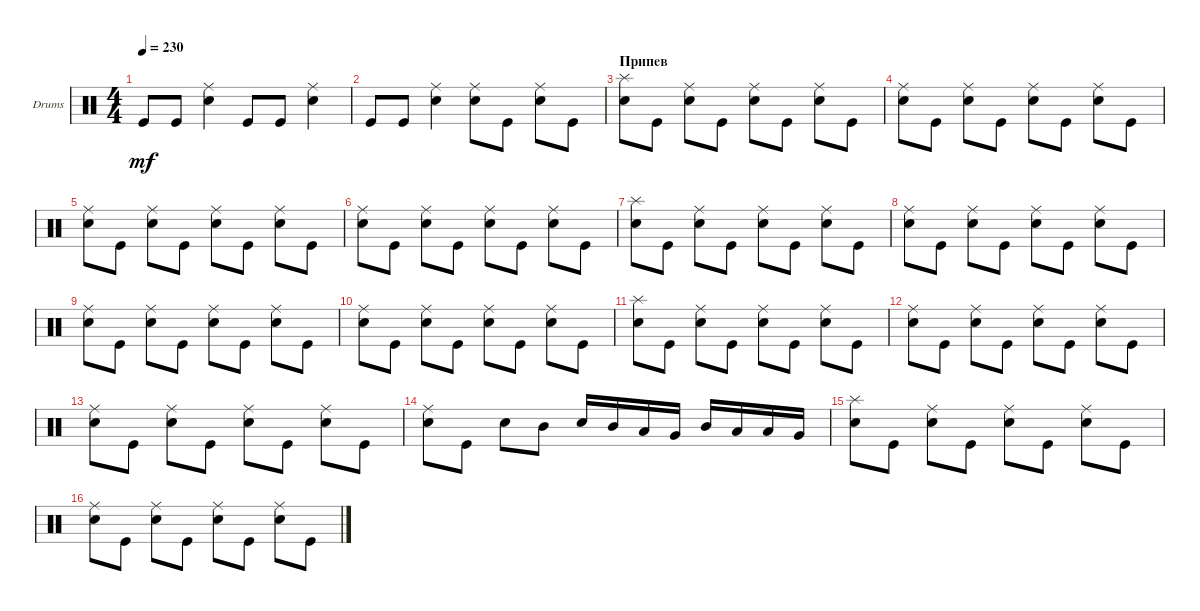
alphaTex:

\defaultSystemsLayout 4
\bracketExtendMode groupsimilarinstruments
\firstSystemTrackNameOrientation horizontal
\otherSystemsTrackNameOrientation horizontal
\track ("Drumkit" "Drums") {instrument percussion}
\staff {score}
\articulation defaults
\ts (4 4)
\tempo 230
\clef neutral
\ks c "Kick (hit)".8{dy mf} "Kick (hit)".8
("Snare (hit) 2" "Ride (middle)").4 "Kick (hit)".8 "Kick (hit)".8 ("Snare (hit) 2" "Ride (middle)").4 |
"Kick (hit)".8 "Kick (hit)".8 ("Snare (hit) 2" "Ride (middle)").4 ("Snare (hit) 2" "Ride (middle)").8 "Kick (hit)".8 ("Snare (hit) 2" "Ride (middle)").8 "Kick (hit)".8 |
\section ("" "Припев")
("Snare (hit) 2" "Splash (hit)").8 "Kick (hit)".8 ("Snare (hit) 2" "Ride (middle)").8 "Kick (hit)".8 ("Snare (hit) 2" "Ride (middle)").8 "Kick (hit)".8 ("Snare (hit) 2" "Ride (middle)").8 "Kick (hit)".8 |
("Snare (hit) 2" "Ride (middle)").8 "Kick (hit)".8 ("Snare (hit) 2" "Ride (middle)").8 "Kick (hit)".8 ("Snare (hit) 2" "Ride (middle)").8 "Kick (hit)".8 ("Snare (hit) 2" "Ride (middle)").8 "Kick (hit)".8 |
("Snare (hit) 2" "Ride (middle)").8 "Kick (hit)".8 ("Snare (hit) 2" "Ride (middle)").8 "Kick (hit)".8 ("Snare (hit) 2" "Ride (middle)").8 "Kick (hit)".8 ("Snare (hit) 2" "Ride (middle)").8 "Kick (hit)".8 |
("Snare (hit) 2" "Ride (middle)").8 "Kick (hit)".8 ("Snare (hit) 2" "Ride (middle)").8 "Kick (hit)".8 ("Snare (hit) 2" "Ride (middle)").8 "Kick (hit)".8 ("Snare (hit) 2" "Ride (middle)").8 "Kick (hit)".8 |
("Snare (hit) 2" "Splash (hit)").8 "Kick (hit)".8 ("Snare (hit) 2" "Ride (middle)").8 "Kick (hit)".8 ("Snare (hit) 2" "Ride (middle)").8 "Kick (hit)".8 ("Snare (hit) 2" "Ride (middle)").8 "Kick (hit)".8 |
("Snare (hit) 2" "Ride (middle)").8 "Kick (hit)".8 ("Snare (hit) 2" "Ride (middle)").8 "Kick (hit)".8 ("Snare (hit) 2" "Ride (middle)").8 "Kick (hit)".8 ("Snare (hit) 2" "Ride (middle)").8 "Kick (hit)".8 |
("Snare (hit) 2" "Ride (middle)").8 "Kick (hit)".8 ("Snare (hit) 2" "Ride (middle)").8 "Kick (hit)".8 ("Snare (hit) 2" "Ride (middle)").8 "Kick (hit)".8 ("Snare (hit) 2" "Ride (middle)").8 "Kick (hit)".8 |
("Snare (hit) 2" "Ride (middle)").8 "Kick (hit)".8 ("Snare (hit) 2" "Ride (middle)").8 "Kick (hit)".8 ("Snare (hit) 2" "Ride (middle)").8 "Kick (hit)".8 ("Snare (hit) 2" "Ride (middle)").8 "Kick (hit)".8 |
("Snare (hit) 2" "Splash (hit)").8 "Kick (hit)".8 ("Snare (hit) 2" "Ride (middle)").8 "Kick (hit)".8 ("Snare (hit) 2" "Ride (middle)").8 "Kick (hit)".8 ("Snare (hit) 2" "Ride (middle)").8 "Kick (hit)".8 |
("Snare (hit) 2" "Ride (middle)").8 "Kick (hit)".8 ("Snare (hit) 2" "Ride (middle)").8 "Kick (hit)".8 ("Snare (hit) 2" "Ride (middle)").8 "Kick (hit)".8 ("Snare (hit) 2" "Ride (middle)").8 "Kick (hit)".8 |
("Snare (hit) 2" "Ride (middle)").8 "Kick (hit)".8 ("Snare (hit) 2" "Ride (middle)").8 "Kick (hit)".8 ("Snare (hit) 2" "Ride (middle)").8 "Kick (hit)".8 ("Snare (hit) 2" "Ride (middle)").8 "Kick (hit)".8 |
("Snare (hit) 2" "Ride (middle)").8 "Kick (hit)".8 "Snare (hit) 2".8 "Mid Tom (hit)".8 "Snare (hit) 2".16 "Mid Tom (hit)".16 "Low Tom (hit)".16 "Very Low Tom (hit)".16 "Mid Tom (hit)".16 "Low Tom (hit)".16 "Low Tom (hit)".16 "Very Low Tom (hit)".16 |
("Snare (hit) 2" "Splash (hit)").8 "Kick (hit)".8 ("Snare (hit) 2" "Ride (middle)").8 "Kick (hit)".8 ("Snare (hit) 2" "Ride (middle)").8 "Kick (hit)".8 ("Snare (hit) 2" "Ride (middle)").8 "Kick (hit)".8 |
("Snare (hit) 2" "Ride (middle)").8 "Kick (hit)".8 ("Snare (hit) 2" "Ride (middle)").8 "Kick (hit)".8 ("Snare (hit) 2" "Ride (middle)").8 "Kick (hit)".8 ("Snare (hit) 2" "Ride (middle)").8 "Kick (hit)".8
